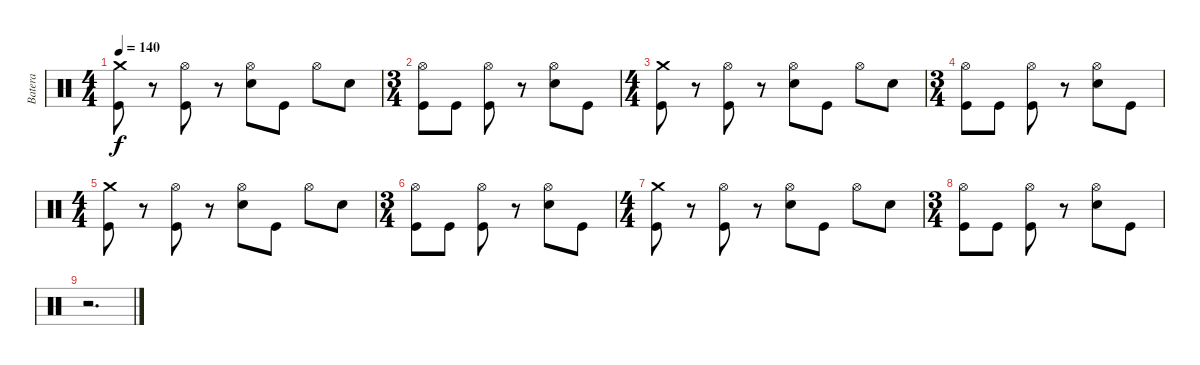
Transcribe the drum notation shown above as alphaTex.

\track ("Batera" "Batera") {instrument percussion}
\staff {score}
\articulation defaults
\ts (4 4)
\tempo 140
\clef neutral
\ks c
("Crash medium (hit)" "Kick (hit)").8{dy f volume 12} r.8 ("Hi-Hat (open)" "Kick (hit)").8 r.8 ("Hi-Hat (open)" "Snare (hit) 2").8 "Kick (hit)".8 "Hi-Hat (open)".8 "Snare (hit) 2".8 |
\ts (3 4)
("Hi-Hat (open)" "Kick (hit)").8 "Kick (hit)".8 ("Hi-Hat (open)" "Kick (hit)").8 r.8 ("Hi-Hat (open)" "Snare (hit) 2").8 "Kick (hit)".8 |
\ts (4 4)
("Crash medium (hit)" "Kick (hit)").8{volume 10} r.8 ("Hi-Hat (open)" "Kick (hit)").8 r.8 ("Hi-Hat (open)" "Snare (hit) 2").8 "Kick (hit)".8 "Hi-Hat (open)".8 "Snare (hit) 2".8 |
\ts (3 4)
("Hi-Hat (open)" "Kick (hit)").8 "Kick (hit)".8 ("Hi-Hat (open)" "Kick (hit)").8 r.8 ("Hi-Hat (open)" "Snare (hit) 2").8 "Kick (hit)".8 |
\ts (4 4)
("Crash medium (hit)" "Kick (hit)").8{volume 6} r.8 ("Hi-Hat (open)" "Kick (hit)").8 r.8 ("Hi-Hat (open)" "Snare (hit) 2").8 "Kick (hit)".8 "Hi-Hat (open)".8 "Snare (hit) 2".8 |
\ts (3 4)
("Hi-Hat (open)" "Kick (hit)").8 "Kick (hit)".8 ("Hi-Hat (open)" "Kick (hit)").8 r.8 ("Hi-Hat (open)" "Snare (hit) 2").8 "Kick (hit)".8 |
\ts (4 4)
("Crash medium (hit)" "Kick (hit)").8{volume 0} r.8 ("Hi-Hat (open)" "Kick (hit)").8 r.8 ("Hi-Hat (open)" "Snare (hit) 2").8 "Kick (hit)".8 "Hi-Hat (open)".8 "Snare (hit) 2".8 |
\ts (3 4)
("Hi-Hat (open)" "Kick (hit)").8 "Kick (hit)".8 ("Hi-Hat (open)" "Kick (hit)").8 r.8 ("Hi-Hat (open)" "Snare (hit) 2").8 "Kick (hit)".8 |
r.2{d}
